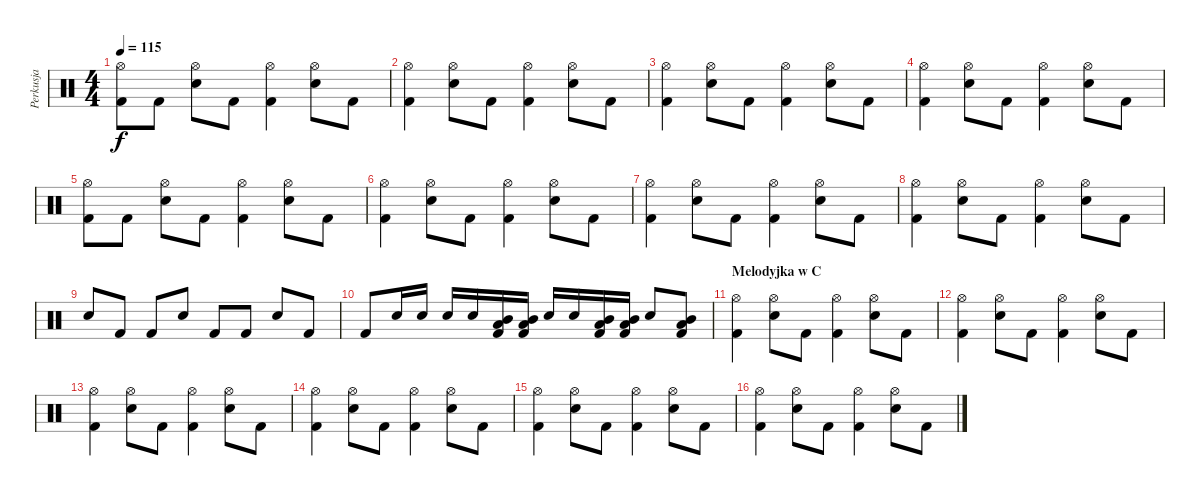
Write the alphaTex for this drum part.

\track ("Perkusja" "Perkusja") {instrument percussion}
\staff {score}
\articulation defaults
\ts (4 4)
\tempo 115
\clef neutral
\ks c
("Hi-Hat (open)" "Kick (hit) 2").8{dy f} "Kick (hit) 2".8 ("Hi-Hat (open)" "Snare (hit) 2").8 "Kick (hit) 2".8 ("Hi-Hat (open)" "Kick (hit) 2").4 ("Hi-Hat (open)" "Snare (hit) 2").8 "Kick (hit) 2".8 |
("Hi-Hat (open)" "Kick (hit) 2").4 ("Hi-Hat (open)" "Snare (hit) 2").8 "Kick (hit) 2".8 ("Hi-Hat (open)" "Kick (hit) 2").4 ("Hi-Hat (open)" "Snare (hit) 2").8 "Kick (hit) 2".8 |
("Hi-Hat (open)" "Kick (hit) 2").4 ("Hi-Hat (open)" "Snare (hit) 2").8 "Kick (hit) 2".8 ("Hi-Hat (open)" "Kick (hit) 2").4 ("Hi-Hat (open)" "Snare (hit) 2").8 "Kick (hit) 2".8 |
("Hi-Hat (open)" "Kick (hit) 2").4 ("Hi-Hat (open)" "Snare (hit) 2").8 "Kick (hit) 2".8 ("Hi-Hat (open)" "Kick (hit) 2").4 ("Hi-Hat (open)" "Snare (hit) 2").8 "Kick (hit) 2".8 |
("Hi-Hat (open)" "Kick (hit) 2").8 "Kick (hit) 2".8 ("Hi-Hat (open)" "Snare (hit) 2").8 "Kick (hit) 2".8 ("Hi-Hat (open)" "Kick (hit) 2").4 ("Hi-Hat (open)" "Snare (hit) 2").8 "Kick (hit) 2".8 |
("Hi-Hat (open)" "Kick (hit) 2").4 ("Hi-Hat (open)" "Snare (hit) 2").8 "Kick (hit) 2".8 ("Hi-Hat (open)" "Kick (hit) 2").4 ("Hi-Hat (open)" "Snare (hit) 2").8 "Kick (hit) 2".8 |
("Hi-Hat (open)" "Kick (hit) 2").4 ("Hi-Hat (open)" "Snare (hit) 2").8 "Kick (hit) 2".8 ("Hi-Hat (open)" "Kick (hit) 2").4 ("Hi-Hat (open)" "Snare (hit) 2").8 "Kick (hit) 2".8 |
("Hi-Hat (open)" "Kick (hit) 2").4 ("Hi-Hat (open)" "Snare (hit) 2").8 "Kick (hit) 2".8 ("Hi-Hat (open)" "Kick (hit) 2").4 ("Hi-Hat (open)" "Snare (hit) 2").8 "Kick (hit) 2".8 |
"Snare (hit) 2".8 "Kick (hit) 2".8 "Kick (hit) 2".8 "Snare (hit) 2".8 "Kick (hit) 2".8 "Kick (hit) 2".8 "Snare (hit) 2".8 "Kick (hit) 2".8 |
"Kick (hit) 2".8 "Snare (hit) 2".16 "Snare (hit) 2".16 "Snare (hit) 2".16 "Snare (hit) 2".16 ("Low Tom (hit)" "Mid Tom (hit)" "Kick (hit) 2").16 ("Low Tom (hit)" "Mid Tom (hit)" "Kick (hit) 2").16 "Snare (hit) 2".16 "Snare (hit) 2".16 ("Low Tom (hit)" "Mid Tom (hit)" "Kick (hit) 2").16 ("Low Tom (hit)" "Mid Tom (hit)" "Kick (hit) 2").16 "Snare (hit) 2".8 ("Low Tom (hit)" "Mid Tom (hit)" "Kick (hit) 2").8 |
\section ("" "Melodyjka w C")
("Hi-Hat (open)" "Kick (hit) 2").4 ("Hi-Hat (open)" "Snare (hit) 2").8 "Kick (hit) 2".8 ("Hi-Hat (open)" "Kick (hit) 2").4 ("Hi-Hat (open)" "Snare (hit) 2").8 "Kick (hit) 2".8 |
("Hi-Hat (open)" "Kick (hit) 2").4 ("Hi-Hat (open)" "Snare (hit) 2").8 "Kick (hit) 2".8 ("Hi-Hat (open)" "Kick (hit) 2").4 ("Hi-Hat (open)" "Snare (hit) 2").8 "Kick (hit) 2".8 |
("Hi-Hat (open)" "Kick (hit) 2").4 ("Hi-Hat (open)" "Snare (hit) 2").8 "Kick (hit) 2".8 ("Hi-Hat (open)" "Kick (hit) 2").4 ("Hi-Hat (open)" "Snare (hit) 2").8 "Kick (hit) 2".8 |
("Hi-Hat (open)" "Kick (hit) 2").4 ("Hi-Hat (open)" "Snare (hit) 2").8 "Kick (hit) 2".8 ("Hi-Hat (open)" "Kick (hit) 2").4 ("Hi-Hat (open)" "Snare (hit) 2").8 "Kick (hit) 2".8 |
("Hi-Hat (open)" "Kick (hit) 2").4 ("Hi-Hat (open)" "Snare (hit) 2").8 "Kick (hit) 2".8 ("Hi-Hat (open)" "Kick (hit) 2").4 ("Hi-Hat (open)" "Snare (hit) 2").8 "Kick (hit) 2".8 |
("Hi-Hat (open)" "Kick (hit) 2").4 ("Hi-Hat (open)" "Snare (hit) 2").8 "Kick (hit) 2".8 ("Hi-Hat (open)" "Kick (hit) 2").4 ("Hi-Hat (open)" "Snare (hit) 2").8 "Kick (hit) 2".8
